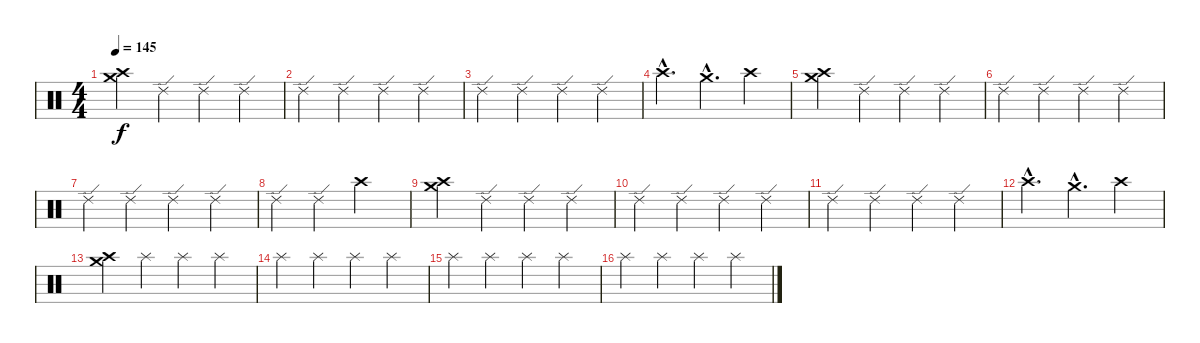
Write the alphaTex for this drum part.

\track "" {instrument percussion}
\staff {score}
\articulation defaults
\ts (4 4)
\tempo 145
\clef neutral
\ks c
("Crash medium (hit)" "Crash high (hit)").4{dy f} "Ride (edge) 2".4 "Ride (edge) 2".4 "Ride (edge) 2".4 |
"Ride (edge) 2".4 "Ride (edge) 2".4 "Ride (edge) 2".4 "Ride (edge) 2".4 |
"Ride (edge) 2".4 "Ride (edge) 2".4 "Ride (edge) 2".4 "Ride (edge) 2".4 |
"Crash high (hit)"{hac}.4{d} "Crash medium (hit)"{hac}.4{d} "Crash high (hit)".4 |
("Crash medium (hit)" "Crash high (hit)").4 "Ride (edge) 2".4 "Ride (edge) 2".4 "Ride (edge) 2".4 |
"Ride (edge) 2".4 "Ride (edge) 2".4 "Ride (edge) 2".4 "Ride (edge) 2".4 |
"Ride (edge) 2".4 "Ride (edge) 2".4 "Ride (edge) 2".4 "Ride (edge) 2".4 |
"Ride (edge) 2".4 "Ride (edge) 2".4 "Crash high (hit)".2 |
("Crash medium (hit)" "Crash high (hit)").4 "Ride (edge) 2".4 "Ride (edge) 2".4 "Ride (edge) 2".4 |
"Ride (edge) 2".4 "Ride (edge) 2".4 "Ride (edge) 2".4 "Ride (edge) 2".4 |
"Ride (edge) 2".4 "Ride (edge) 2".4 "Ride (edge) 2".4 "Ride (edge) 2".4 |
"Crash high (hit)"{hac}.4{d} "Crash medium (hit)"{hac}.4{d} "Crash high (hit)".4 |
("Crash medium (hit)" "Crash high (hit)").4 "Splash (hit)".4 "Splash (hit)".4 "Splash (hit)".4 |
"Splash (hit)".4 "Splash (hit)".4 "Splash (hit)".4 "Splash (hit)".4 |
"Splash (hit)".4 "Splash (hit)".4 "Splash (hit)".4 "Splash (hit)".4 |
"Splash (hit)".4 "Splash (hit)".4 "Splash (hit)".4 "Splash (hit)".4
